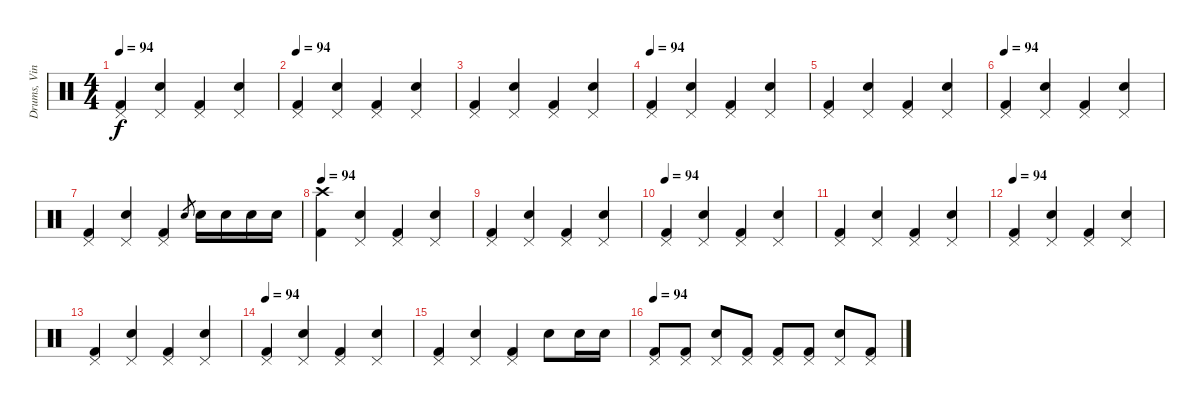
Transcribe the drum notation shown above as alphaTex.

\track ("Drums, Vinnie" "Drums, Vin") {instrument percussion}
\staff {score}
\articulation defaults
\ts (4 4)
\tempo 94
\clef neutral
\ks c
("Pedal Hi-Hat (hit)" "Kick (hit) 2").4{dy f} ("Pedal Hi-Hat (hit)" "Electric Snare (hit)").4 ("Pedal Hi-Hat (hit)" "Kick (hit) 2").4 ("Pedal Hi-Hat (hit)" "Electric Snare (hit)").4 |
\tempo 94
("Pedal Hi-Hat (hit)" "Kick (hit) 2").4 ("Pedal Hi-Hat (hit)" "Electric Snare (hit)").4 ("Pedal Hi-Hat (hit)" "Kick (hit) 2").4 ("Pedal Hi-Hat (hit)" "Electric Snare (hit)").4 |
("Pedal Hi-Hat (hit)" "Kick (hit) 2").4 ("Pedal Hi-Hat (hit)" "Electric Snare (hit)").4 ("Pedal Hi-Hat (hit)" "Kick (hit) 2").4 ("Pedal Hi-Hat (hit)" "Electric Snare (hit)").4 |
\tempo 94
("Pedal Hi-Hat (hit)" "Kick (hit) 2").4 ("Pedal Hi-Hat (hit)" "Electric Snare (hit)").4 ("Pedal Hi-Hat (hit)" "Kick (hit) 2").4 ("Pedal Hi-Hat (hit)" "Electric Snare (hit)").4 |
("Pedal Hi-Hat (hit)" "Kick (hit) 2").4 ("Pedal Hi-Hat (hit)" "Electric Snare (hit)").4 ("Pedal Hi-Hat (hit)" "Kick (hit) 2").4 ("Pedal Hi-Hat (hit)" "Electric Snare (hit)").4 |
\tempo 94
("Pedal Hi-Hat (hit)" "Kick (hit) 2").4 ("Pedal Hi-Hat (hit)" "Electric Snare (hit)").4 ("Pedal Hi-Hat (hit)" "Kick (hit) 2").4 ("Pedal Hi-Hat (hit)" "Electric Snare (hit)").4 |
("Pedal Hi-Hat (hit)" "Kick (hit) 2").4 ("Pedal Hi-Hat (hit)" "Electric Snare (hit)").4 ("Pedal Hi-Hat (hit)" "Kick (hit) 2").4 "Electric Snare (hit)".8{gr} "Electric Snare (hit)".16 "Electric Snare (hit)".16 "Electric Snare (hit)".16 "Electric Snare (hit)".16 |
\tempo 94
("Crash high (hit)" "Kick (hit) 2").4 ("Pedal Hi-Hat (hit)" "Electric Snare (hit)").4 ("Pedal Hi-Hat (hit)" "Kick (hit) 2").4 ("Pedal Hi-Hat (hit)" "Electric Snare (hit)").4 |
("Pedal Hi-Hat (hit)" "Kick (hit) 2").4 ("Pedal Hi-Hat (hit)" "Electric Snare (hit)").4 ("Pedal Hi-Hat (hit)" "Kick (hit) 2").4 ("Pedal Hi-Hat (hit)" "Electric Snare (hit)").4 |
\tempo 94
("Pedal Hi-Hat (hit)" "Kick (hit) 2").4 ("Pedal Hi-Hat (hit)" "Electric Snare (hit)").4 ("Pedal Hi-Hat (hit)" "Kick (hit) 2").4 ("Pedal Hi-Hat (hit)" "Electric Snare (hit)").4 |
("Pedal Hi-Hat (hit)" "Kick (hit) 2").4 ("Pedal Hi-Hat (hit)" "Electric Snare (hit)").4 ("Pedal Hi-Hat (hit)" "Kick (hit) 2").4 ("Pedal Hi-Hat (hit)" "Electric Snare (hit)").4 |
\tempo 94
("Pedal Hi-Hat (hit)" "Kick (hit) 2").4 ("Pedal Hi-Hat (hit)" "Electric Snare (hit)").4 ("Pedal Hi-Hat (hit)" "Kick (hit) 2").4 ("Pedal Hi-Hat (hit)" "Electric Snare (hit)").4 |
("Pedal Hi-Hat (hit)" "Kick (hit) 2").4 ("Pedal Hi-Hat (hit)" "Electric Snare (hit)").4 ("Pedal Hi-Hat (hit)" "Kick (hit) 2").4 ("Pedal Hi-Hat (hit)" "Electric Snare (hit)").4 |
\tempo 94
("Pedal Hi-Hat (hit)" "Kick (hit) 2").4 ("Pedal Hi-Hat (hit)" "Electric Snare (hit)").4 ("Pedal Hi-Hat (hit)" "Kick (hit) 2").4 ("Pedal Hi-Hat (hit)" "Electric Snare (hit)").4 |
("Pedal Hi-Hat (hit)" "Kick (hit) 2").4 ("Pedal Hi-Hat (hit)" "Electric Snare (hit)").4 ("Pedal Hi-Hat (hit)" "Kick (hit) 2").4 "Electric Snare (hit)".8 "Electric Snare (hit)".16 "Electric Snare (hit)".16 |
\tempo 94
("Pedal Hi-Hat (hit)" "Kick (hit) 2").8 ("Pedal Hi-Hat (hit)" "Kick (hit) 2").8 ("Pedal Hi-Hat (hit)" "Electric Snare (hit)").8 ("Pedal Hi-Hat (hit)" "Kick (hit) 2").8 ("Pedal Hi-Hat (hit)" "Kick (hit) 2").8 ("Pedal Hi-Hat (hit)" "Kick (hit) 2").8 ("Pedal Hi-Hat (hit)" "Electric Snare (hit)").8 ("Pedal Hi-Hat (hit)" "Kick (hit) 2").8
